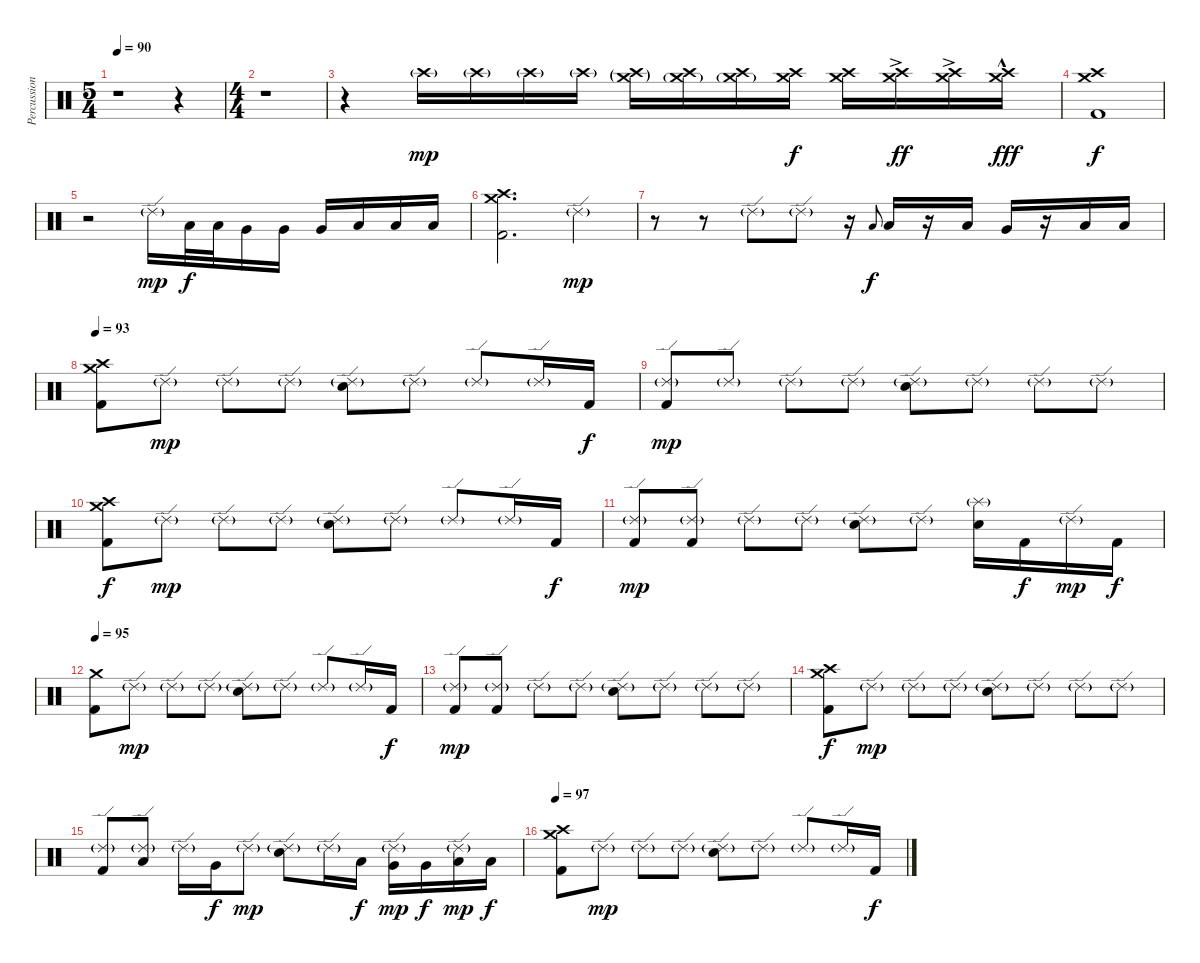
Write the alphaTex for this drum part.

\track ("Percussion" "Percussion") {instrument percussion}
\staff {score}
\articulation defaults
\ts (5 4)
\tempo 90
\clef neutral
\ks c
r.1{dy f} r.4 |
\ts (4 4)
r.1 |
r.4 "Crash high (hit)"{g}.16{dy mp} "Crash high (hit)"{g}.16 "Crash high (hit)"{g}.16 "Crash high (hit)"{g}.16 ("Crash medium (hit)"{g} "Crash high (hit)"{g}).16 ("Crash medium (hit)"{g} "Crash high (hit)").16 ("Crash medium (hit)"{g} "Crash high (hit)").16 ("Crash medium (hit)" "Crash high (hit)").16{dy f} ("Crash medium (hit)" "Crash high (hit)").16 ("Crash medium (hit)"{ac} "Crash high (hit)"{ac}).16{dy ff} ("Crash medium (hit)"{ac} "Crash high (hit)"{ac}).16 ("Crash medium (hit)"{hac} "Crash high (hit)"{hac}).16{dy fff} |
("Crash medium (hit)" "Crash high (hit)" "Kick (hit) 2").1{dy f} |
r.2 "Ride (edge) 2"{g}.16{dy mp} "Low Tom (hit)".32{dy f} "Low Tom (hit)".32 "Very Low Tom (hit)".16 "Very Low Tom (hit)".16 "Very Low Tom (hit)".16 "Low Floor Tom (hit)".16 "Low Floor Tom (hit)".16 "Low Floor Tom (hit)".16 |
("Crash medium (hit)" "Crash high (hit)" "Kick (hit) 2").2{d} "Ride (edge) 2"{g}.4{dy mp} |
r.8 r.8 "Ride (edge) 2"{g}.8 "Ride (edge) 2"{g}.8 r.16 "Low Tom (hit)".8{gr onbeat dy f} "Low Tom (hit)".16 r.16 "Low Tom (hit)".16 "Very Low Tom (hit)".16 r.16 "Low Floor Tom (hit)".16 "Low Floor Tom (hit)".16 |
\tempo 93
("Crash medium (hit)" "Crash high (hit)" "Kick (hit) 2").8 "Ride (edge) 2"{g}.8{dy mp} "Ride (edge) 2"{g}.8 "Ride (edge) 2"{g}.8 ("Ride (edge) 2"{g} "Electric Snare (hit)").8 "Ride (edge) 2"{g}.8 "Ride (edge) 2"{g}.8 "Ride (edge) 2"{g}.16 "Kick (hit) 2".16{dy f} |
("Ride (edge) 2"{g} "Kick (hit) 2").8{dy mp} "Ride (edge) 2"{g}.8 "Ride (edge) 2"{g}.8 "Ride (edge) 2"{g}.8 ("Ride (edge) 2"{g} "Electric Snare (hit)").8 "Ride (edge) 2"{g}.8 "Ride (edge) 2"{g}.8 "Ride (edge) 2"{g}.8 |
("Crash medium (hit)" "Crash high (hit)" "Kick (hit) 2").8{dy f} "Ride (edge) 2"{g}.8{dy mp} "Ride (edge) 2"{g}.8 "Ride (edge) 2"{g}.8 ("Ride (edge) 2"{g} "Electric Snare (hit)").8 "Ride (edge) 2"{g}.8 "Ride (edge) 2"{g}.8 "Ride (edge) 2"{g}.16 "Kick (hit) 2".16{dy f} |
("Ride (edge) 2"{g} "Kick (hit) 2").8{dy mp} ("Ride (edge) 2"{g} "Kick (hit) 2").8 "Ride (edge) 2"{g}.8 "Ride (edge) 2"{g}.8 ("Ride (edge) 2"{g} "Electric Snare (hit)").8 "Ride (edge) 2"{g}.8 ("Splash (hit)"{g} "Electric Snare (hit)").16 "Kick (hit) 2".16{dy f} "Ride (edge) 2"{g}.16{dy mp} "Kick (hit) 2".16{dy f} |
\tempo 95
("Crash medium (hit)" "Kick (hit) 2").8 "Ride (edge) 2"{g}.8{dy mp} "Ride (edge) 2"{g}.8 "Ride (edge) 2"{g}.8 ("Ride (edge) 2"{g} "Electric Snare (hit)").8 "Ride (edge) 2"{g}.8 "Ride (edge) 2"{g}.8 "Ride (edge) 2"{g}.16 "Kick (hit) 2".16{dy f} |
("Ride (edge) 2"{g} "Kick (hit) 2").8{dy mp} ("Ride (edge) 2"{g} "Kick (hit) 2").8 "Ride (edge) 2"{g}.8 "Ride (edge) 2"{g}.8 ("Ride (edge) 2"{g} "Electric Snare (hit)").8 "Ride (edge) 2"{g}.8 "Ride (edge) 2"{g}.8 "Ride (edge) 2"{g}.8 |
("Crash medium (hit)" "Crash high (hit)" "Kick (hit) 2").8{dy f} "Ride (edge) 2"{g}.8{dy mp} "Ride (edge) 2"{g}.8 "Ride (edge) 2"{g}.8 ("Ride (edge) 2"{g} "Electric Snare (hit)").8 "Ride (edge) 2"{g}.8 "Ride (edge) 2"{g}.8 "Ride (edge) 2"{g}.8 |
("Ride (edge) 2"{g} "Kick (hit) 2").8 ("Ride (edge) 2"{g} "Low Tom (hit)").8 "Ride (edge) 2"{g}.16 "Very Low Tom (hit)".16{dy f} "Ride (edge) 2"{g}.8{dy mp} ("Ride (edge) 2"{g} "Electric Snare (hit)").8 "Ride (edge) 2"{g}.16 "Low Tom (hit)".16{dy f} ("Ride (edge) 2"{g} "Very Low Tom (hit)").16{dy mp} "Very Low Tom (hit)".16{dy f} ("Ride (edge) 2"{g} "Low Floor Tom (hit)").16{dy mp} "Low Floor Tom (hit)".16{dy f} |
\tempo 97
("Crash medium (hit)" "Crash high (hit)" "Kick (hit) 2").8 "Ride (edge) 2"{g}.8{dy mp} "Ride (edge) 2"{g}.8 "Ride (edge) 2"{g}.8 ("Ride (edge) 2"{g} "Electric Snare (hit)").8 "Ride (edge) 2"{g}.8 "Ride (edge) 2"{g}.8 "Ride (edge) 2"{g}.16 "Kick (hit) 2".16{dy f}
